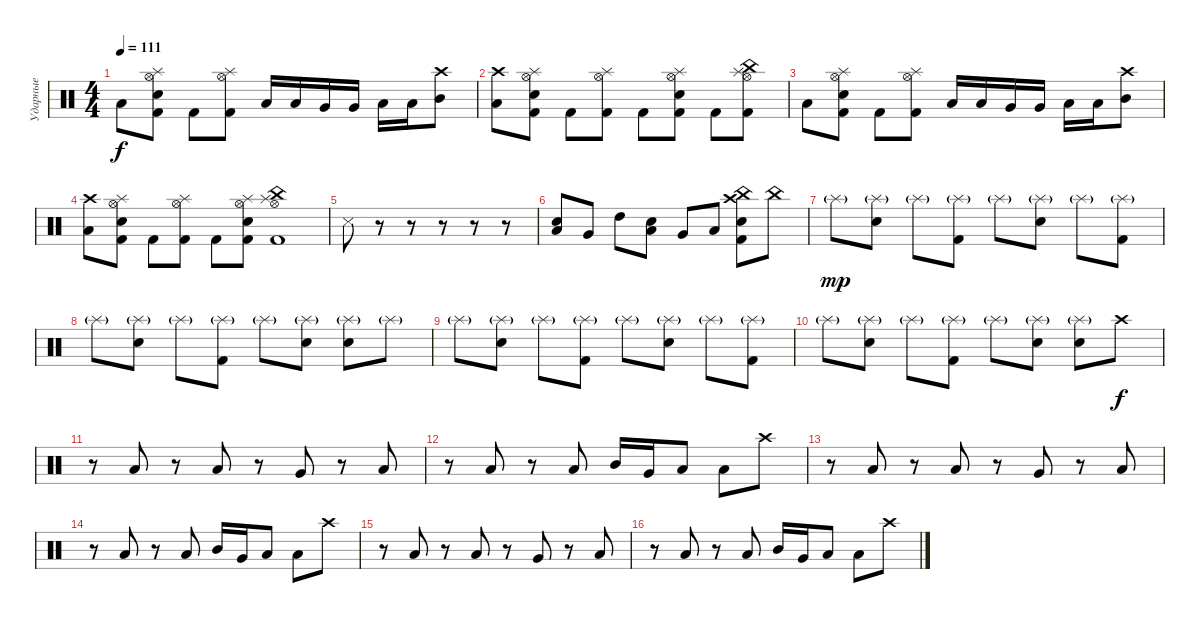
\track ("Ударные" "Ударные") {instrument percussion}
\staff {score}
\articulation defaults
\ts (4 4)
\tempo 111
\clef neutral
\ks c "Low Tom (hit)".8{dy f}
("Kick (hit) 2" "Electric Snare (hit)" "Hi-Hat (open)" "Splash (hit)").8 "Kick (hit) 2".8 ("Kick (hit) 2" "Hi-Hat (open)" "Splash (hit)").8 "Low Tom (hit)".16 "Low Tom (hit)".16 "Very Low Tom (hit)".16 "Very Low Tom (hit)".16 "Low Floor Tom (hit)".16 "Low Floor Tom (hit)".16 ("Mid Tom (hit)" "Crash high (hit)").8 |
("Low Tom (hit)" "Crash high (hit)").8 ("Kick (hit) 2" "Electric Snare (hit)" "Hi-Hat (open)" "Splash (hit)").8 "Kick (hit) 2".8 ("Kick (hit) 2" "Hi-Hat (open)" "Splash (hit)").8 "Kick (hit) 2".8 ("Kick (hit) 2" "Electric Snare (hit)" "Hi-Hat (open)" "Splash (hit)").8 "Kick (hit) 2".8 ("Kick (hit) 2" "China (hit)" "Hi-Hat (open)" "Splash (hit)").8 |
"Low Tom (hit)".8 ("Kick (hit) 2" "Electric Snare (hit)" "Hi-Hat (open)" "Splash (hit)").8 "Kick (hit) 2".8 ("Kick (hit) 2" "Hi-Hat (open)" "Splash (hit)").8 "Low Tom (hit)".16 "Low Tom (hit)".16 "Very Low Tom (hit)".16 "Very Low Tom (hit)".16 "Low Floor Tom (hit)".16 "Low Floor Tom (hit)".16 ("Mid Tom (hit)" "Crash high (hit)").8 |
("Low Tom (hit)" "Crash high (hit)").8 ("Kick (hit) 2" "Electric Snare (hit)" "Hi-Hat (open)" "Splash (hit)").8 "Kick (hit) 2".8 ("Kick (hit) 2" "Hi-Hat (open)" "Splash (hit)").8 "Kick (hit) 2".8 ("Kick (hit) 2" "Electric Snare (hit)" "Hi-Hat (open)" "Splash (hit)").8 ("Kick (hit) 2" "China (hit)" "Hi-Hat (open)" "Splash (hit)").1 |
"Snare (side stick) 3".8 r.8 r.8 r.8 r.8 r.8 |
("Low Floor Tom (hit)" "Electric Snare (hit)").8 "Very Low Tom (hit)".8 "High Tom (hit)".8 ("Low Floor Tom (hit)" "Electric Snare (hit)").8 "Very Low Tom (hit)".8 "Low Floor Tom (hit)".8 ("Kick (hit) 2" "China (hit)" "Crash high (hit)" "Electric Snare (hit)").8 "China (hit)".8 |
"Splash (hit)"{g}.8{dy mp} ("Electric Snare (hit)" "Splash (hit)"{g}).8 "Splash (hit)"{g}.8 ("Splash (hit)"{g} "Kick (hit) 2").8 "Splash (hit)"{g}.8 ("Electric Snare (hit)" "Splash (hit)"{g}).8 "Splash (hit)"{g}.8 ("Splash (hit)"{g} "Kick (hit) 2").8 |
"Splash (hit)"{g}.8 ("Electric Snare (hit)" "Splash (hit)"{g}).8 "Splash (hit)"{g}.8 ("Splash (hit)"{g} "Kick (hit) 2").8 "Splash (hit)"{g}.8 ("Electric Snare (hit)" "Splash (hit)"{g}).8 ("Snare (hit) 2" "Splash (hit)"{g}).8 "Splash (hit)"{g}.8 |
"Splash (hit)"{g}.8 ("Electric Snare (hit)" "Splash (hit)"{g}).8 "Splash (hit)"{g}.8 ("Splash (hit)"{g} "Kick (hit) 2").8 "Splash (hit)"{g}.8 ("Electric Snare (hit)" "Splash (hit)"{g}).8 "Splash (hit)"{g}.8 ("Splash (hit)"{g} "Kick (hit) 2").8 |
"Splash (hit)"{g}.8 ("Electric Snare (hit)" "Splash (hit)"{g}).8 "Splash (hit)"{g}.8 ("Splash (hit)"{g} "Kick (hit) 2").8 "Splash (hit)"{g}.8 ("Electric Snare (hit)" "Splash (hit)"{g}).8 ("Snare (hit) 2" "Splash (hit)"{g}).8 "Crash high (hit)".8{dy f} |
r.8 "Low Floor Tom (hit)".8 r.8 "Low Tom (hit)".8 r.8 "Very Low Tom (hit)".8 r.8 "Low Tom (hit)".8 |
r.8 "Low Floor Tom (hit)".8 r.8 "Low Tom (hit)".8 "Mid Tom (hit)".16 "Very Low Tom (hit)".16 "Low Floor Tom (hit)".8 "Low Tom (hit)".8 "Crash high (hit)".8 |
r.8 "Low Floor Tom (hit)".8 r.8 "Low Tom (hit)".8 r.8 "Very Low Tom (hit)".8 r.8 "Low Tom (hit)".8 |
r.8 "Low Floor Tom (hit)".8 r.8 "Low Tom (hit)".8 "Mid Tom (hit)".16 "Very Low Tom (hit)".16 "Low Floor Tom (hit)".8 "Low Tom (hit)".8 "Crash high (hit)".8 |
r.8 "Low Floor Tom (hit)".8 r.8 "Low Tom (hit)".8 r.8 "Very Low Tom (hit)".8 r.8 "Low Tom (hit)".8 |
r.8 "Low Floor Tom (hit)".8 r.8 "Low Tom (hit)".8 "Mid Tom (hit)".16 "Very Low Tom (hit)".16 "Low Floor Tom (hit)".8 "Low Tom (hit)".8 "Crash high (hit)".8
